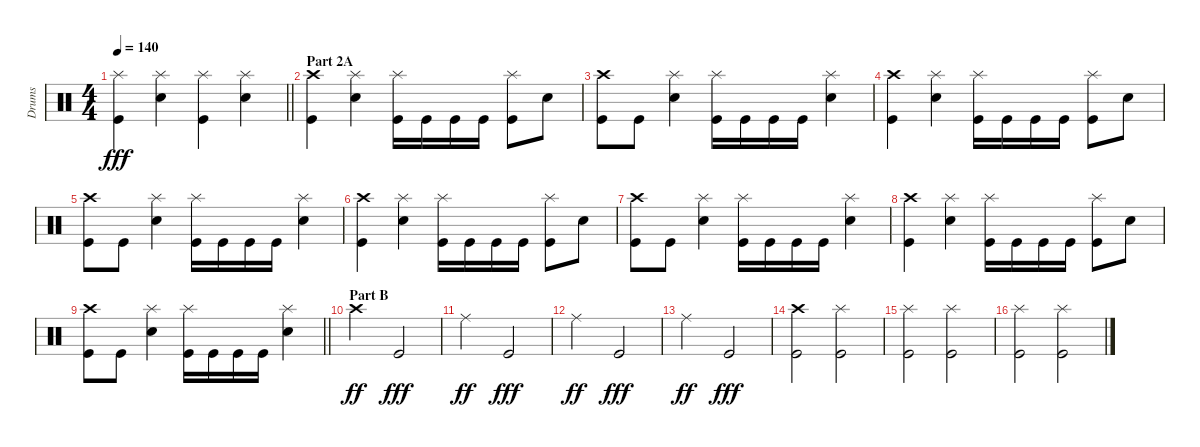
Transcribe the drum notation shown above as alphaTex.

\track ("Drums" "Drums") {instrument percussion}
\staff {score}
\articulation defaults
\ts (4 4)
\tempo 140
\clef neutral
\barLineRight lightlight
\ks c
("Splash (hit)" "Kick (hit)").4{dy fff} ("Splash (hit)" "Electric Snare (hit)").4 ("Splash (hit)" "Kick (hit)").4 ("Splash (hit)" "Electric Snare (hit)").4 |
\section ("" "Part 2A")
("Crash high (hit)" "Kick (hit)").4 ("Splash (hit)" "Electric Snare (hit)").4 ("Splash (hit)" "Kick (hit)").16 "Kick (hit)".16 "Kick (hit)".16 "Kick (hit)".16 ("Splash (hit)" "Kick (hit)").8 "Electric Snare (hit)".8 |
("Crash high (hit)" "Kick (hit)").8 "Kick (hit)".8 ("Splash (hit)" "Electric Snare (hit)").4 ("Splash (hit)" "Kick (hit)").16 "Kick (hit)".16 "Kick (hit)".16 "Kick (hit)".16 ("Splash (hit)" "Electric Snare (hit)").4 |
("Crash high (hit)" "Kick (hit)").4 ("Splash (hit)" "Electric Snare (hit)").4 ("Splash (hit)" "Kick (hit)").16 "Kick (hit)".16 "Kick (hit)".16 "Kick (hit)".16 ("Splash (hit)" "Kick (hit)").8 "Electric Snare (hit)".8 |
("Crash high (hit)" "Kick (hit)").8 "Kick (hit)".8 ("Splash (hit)" "Electric Snare (hit)").4 ("Splash (hit)" "Kick (hit)").16 "Kick (hit)".16 "Kick (hit)".16 "Kick (hit)".16 ("Splash (hit)" "Electric Snare (hit)").4 |
("Crash high (hit)" "Kick (hit)").4 ("Splash (hit)" "Electric Snare (hit)").4 ("Splash (hit)" "Kick (hit)").16 "Kick (hit)".16 "Kick (hit)".16 "Kick (hit)".16 ("Splash (hit)" "Kick (hit)").8 "Electric Snare (hit)".8 |
("Crash high (hit)" "Kick (hit)").8 "Kick (hit)".8 ("Splash (hit)" "Electric Snare (hit)").4 ("Splash (hit)" "Kick (hit)").16 "Kick (hit)".16 "Kick (hit)".16 "Kick (hit)".16 ("Splash (hit)" "Electric Snare (hit)").4 |
("Crash high (hit)" "Kick (hit)").4 ("Splash (hit)" "Electric Snare (hit)").4 ("Splash (hit)" "Kick (hit)").16 "Kick (hit)".16 "Kick (hit)".16 "Kick (hit)".16 ("Splash (hit)" "Kick (hit)").8 "Electric Snare (hit)".8 |
\barLineRight lightlight
("Crash high (hit)" "Kick (hit)").8 "Kick (hit)".8 ("Splash (hit)" "Electric Snare (hit)").4 ("Splash (hit)" "Kick (hit)").16 "Kick (hit)".16 "Kick (hit)".16 "Kick (hit)".16 ("Splash (hit)" "Electric Snare (hit)").4 |
\section ("" "Part B")
"Crash high (hit)".2{dy ff} "Kick (hit)".2{dy fff} |
"Ride (middle)".2{dy ff} "Kick (hit)".2{dy fff} |
"Ride (middle)".2{dy ff} "Kick (hit)".2{dy fff} |
"Ride (middle)".2{dy ff} "Kick (hit)".2{dy fff} |
("Crash high (hit)" "Kick (hit)").2 ("Splash (hit)" "Kick (hit)").2 |
("Splash (hit)" "Kick (hit)").2 ("Splash (hit)" "Kick (hit)").2 |
("Splash (hit)" "Kick (hit)").2 ("Splash (hit)" "Kick (hit)").2
